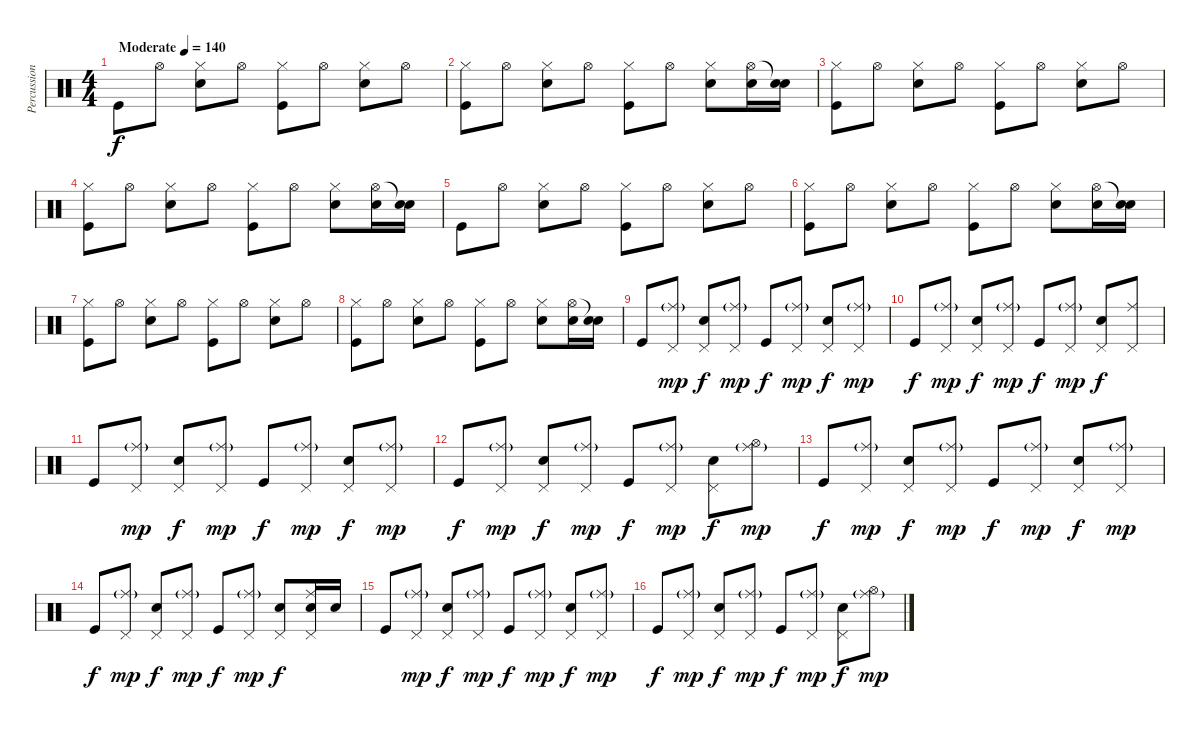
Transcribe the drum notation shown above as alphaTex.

\track ("Percussion" "Percussion") {instrument percussion}
\staff {score}
\articulation defaults
\ts (4 4)
\tempo (140 "Moderate")
\clef neutral
\ks c "Kick (hit)".8{dy f} "Hi-Hat (open)".8
("Hi-Hat (closed)" "Snare (hit) 2").8 "Hi-Hat (open)".8 ("Hi-Hat (closed)" "Kick (hit)").8 "Hi-Hat (open)".8 ("Hi-Hat (closed)" "Snare (hit) 2").8 "Hi-Hat (open)".8 |
("Hi-Hat (closed)" "Kick (hit)").8 "Hi-Hat (open)".8 ("Hi-Hat (closed)" "Snare (hit) 2").8 "Hi-Hat (open)".8 ("Hi-Hat (closed)" "Kick (hit)").8 "Hi-Hat (open)".8 ("Hi-Hat (closed)" "Snare (hit) 2").8 ("Hi-Hat (open)" "Snare (hit) 2").16 ("Snare (hit)"{t} "Snare (hit) 2").16 |
("Hi-Hat (closed)" "Kick (hit)").8 "Hi-Hat (open)".8 ("Hi-Hat (closed)" "Snare (hit) 2").8 "Hi-Hat (open)".8 ("Hi-Hat (closed)" "Kick (hit)").8 "Hi-Hat (open)".8 ("Hi-Hat (closed)" "Snare (hit) 2").8 "Hi-Hat (open)".8 |
("Hi-Hat (closed)" "Kick (hit)").8 "Hi-Hat (open)".8 ("Hi-Hat (closed)" "Snare (hit) 2").8 "Hi-Hat (open)".8 ("Hi-Hat (closed)" "Kick (hit)").8 "Hi-Hat (open)".8 ("Hi-Hat (closed)" "Snare (hit) 2").8 ("Hi-Hat (open)" "Snare (hit) 2").16 ("Snare (hit)"{t} "Snare (hit) 2").16 |
"Kick (hit)".8 "Hi-Hat (open)".8 ("Hi-Hat (closed)" "Snare (hit) 2").8 "Hi-Hat (open)".8 ("Hi-Hat (closed)" "Kick (hit)").8 "Hi-Hat (open)".8 ("Hi-Hat (closed)" "Snare (hit) 2").8 "Hi-Hat (open)".8 |
("Hi-Hat (closed)" "Kick (hit)").8 "Hi-Hat (open)".8 ("Hi-Hat (closed)" "Snare (hit) 2").8 "Hi-Hat (open)".8 ("Hi-Hat (closed)" "Kick (hit)").8 "Hi-Hat (open)".8 ("Hi-Hat (closed)" "Snare (hit) 2").8 ("Hi-Hat (open)" "Snare (hit) 2").16 ("Snare (hit)"{t} "Snare (hit) 2").16 |
("Hi-Hat (closed)" "Kick (hit)").8 "Hi-Hat (open)".8 ("Hi-Hat (closed)" "Snare (hit) 2").8 "Hi-Hat (open)".8 ("Hi-Hat (closed)" "Kick (hit)").8 "Hi-Hat (open)".8 ("Hi-Hat (closed)" "Snare (hit) 2").8 "Hi-Hat (open)".8 |
("Hi-Hat (closed)" "Kick (hit)").8 "Hi-Hat (open)".8 ("Hi-Hat (closed)" "Snare (hit) 2").8 "Hi-Hat (open)".8 ("Hi-Hat (closed)" "Kick (hit)").8 "Hi-Hat (open)".8 ("Hi-Hat (closed)" "Snare (hit) 2").8 ("Hi-Hat (open)" "Snare (hit) 2").16 ("Snare (hit)"{t} "Snare (hit) 2").16 |
"Kick (hit)".8 ("Ride (middle)"{g} "Pedal Hi-Hat (hit)").8{dy mp} ("Pedal Hi-Hat (hit)" "Snare (hit) 2").8{dy f} ("Ride (middle)"{g} "Pedal Hi-Hat (hit)").8{dy mp} "Kick (hit)".8{dy f} ("Ride (middle)"{g} "Pedal Hi-Hat (hit)").8{dy mp} ("Pedal Hi-Hat (hit)" "Snare (hit) 2").8{dy f} ("Ride (middle)"{g} "Pedal Hi-Hat (hit)").8{dy mp} |
"Kick (hit)".8{dy f} ("Ride (middle)"{g} "Pedal Hi-Hat (hit)").8{dy mp} ("Pedal Hi-Hat (hit)" "Snare (hit) 2").8{dy f} ("Ride (middle)"{g} "Pedal Hi-Hat (hit)").8{dy mp} "Kick (hit)".8{dy f} ("Ride (middle)"{g} "Pedal Hi-Hat (hit)").8{dy mp} ("Pedal Hi-Hat (hit)" "Snare (hit) 2").8{dy f} ("Ride (middle)" "Pedal Hi-Hat (hit)").8 |
"Kick (hit)".8 ("Ride (middle)"{g} "Pedal Hi-Hat (hit)").8{dy mp} ("Pedal Hi-Hat (hit)" "Snare (hit) 2").8{dy f} ("Ride (middle)"{g} "Pedal Hi-Hat (hit)").8{dy mp} "Kick (hit)".8{dy f} ("Ride (middle)"{g} "Pedal Hi-Hat (hit)").8{dy mp} ("Pedal Hi-Hat (hit)" "Snare (hit) 2").8{dy f} ("Ride (middle)"{g} "Pedal Hi-Hat (hit)").8{dy mp} |
"Kick (hit)".8{dy f} ("Ride (middle)"{g} "Pedal Hi-Hat (hit)").8{dy mp} ("Pedal Hi-Hat (hit)" "Snare (hit) 2").8{dy f} ("Ride (middle)"{g} "Pedal Hi-Hat (hit)").8{dy mp} "Kick (hit)".8{dy f} ("Ride (middle)"{g} "Pedal Hi-Hat (hit)").8{dy mp} ("Pedal Hi-Hat (hit)" "Snare (hit) 2").8{dy f} ("Hi-Hat (open)" "Ride (middle)"{g}).8{dy mp} |
"Kick (hit)".8{dy f} ("Ride (middle)"{g} "Pedal Hi-Hat (hit)").8{dy mp} ("Pedal Hi-Hat (hit)" "Snare (hit) 2").8{dy f} ("Ride (middle)"{g} "Pedal Hi-Hat (hit)").8{dy mp} "Kick (hit)".8{dy f} ("Ride (middle)"{g} "Pedal Hi-Hat (hit)").8{dy mp} ("Pedal Hi-Hat (hit)" "Snare (hit) 2").8{dy f} ("Ride (middle)"{g} "Pedal Hi-Hat (hit)").8{dy mp} |
"Kick (hit)".8{dy f} ("Ride (middle)"{g} "Pedal Hi-Hat (hit)").8{dy mp} ("Pedal Hi-Hat (hit)" "Snare (hit) 2").8{dy f} ("Ride (middle)"{g} "Pedal Hi-Hat (hit)").8{dy mp} "Kick (hit)".8{dy f} ("Ride (middle)"{g} "Pedal Hi-Hat (hit)").8{dy mp} ("Pedal Hi-Hat (hit)" "Snare (hit) 2").8{dy f} ("Ride (middle)" "Pedal Hi-Hat (hit)" "Snare (hit) 2").16 "Snare (hit) 2".16 |
"Kick (hit)".8 ("Ride (middle)"{g} "Pedal Hi-Hat (hit)").8{dy mp} ("Pedal Hi-Hat (hit)" "Snare (hit) 2").8{dy f} ("Ride (middle)"{g} "Pedal Hi-Hat (hit)").8{dy mp} "Kick (hit)".8{dy f} ("Ride (middle)"{g} "Pedal Hi-Hat (hit)").8{dy mp} ("Pedal Hi-Hat (hit)" "Snare (hit) 2").8{dy f} ("Ride (middle)"{g} "Pedal Hi-Hat (hit)").8{dy mp} |
"Kick (hit)".8{dy f} ("Ride (middle)"{g} "Pedal Hi-Hat (hit)").8{dy mp} ("Pedal Hi-Hat (hit)" "Snare (hit) 2").8{dy f} ("Ride (middle)"{g} "Pedal Hi-Hat (hit)").8{dy mp} "Kick (hit)".8{dy f} ("Ride (middle)"{g} "Pedal Hi-Hat (hit)").8{dy mp} ("Pedal Hi-Hat (hit)" "Snare (hit) 2").8{dy f} ("Hi-Hat (open)" "Ride (middle)"{g}).8{dy mp}
